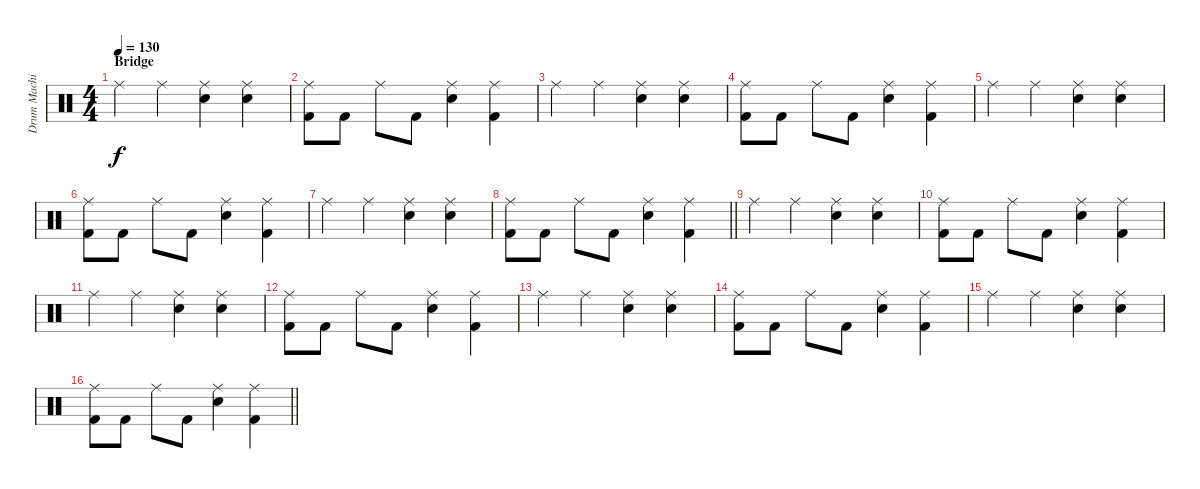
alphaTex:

\track ("Drum Machine" "Drum Machi") {instrument percussion}
\staff {score}
\articulation defaults
\ts (4 4)
\section ("" "Bridge")
\tempo 130
\clef neutral
\ks c "Ride (middle)".4{dy f} "Ride (middle)".4
("Electric Snare (hit)" "Ride (middle)").4 ("Electric Snare (hit)" "Ride (middle)").4 |
("Kick (hit) 2" "Ride (middle)").8 "Kick (hit) 2".8 "Ride (middle)".8 "Kick (hit) 2".8 ("Electric Snare (hit)" "Ride (middle)").4 ("Kick (hit) 2" "Ride (middle)").4 |
"Ride (middle)".4 "Ride (middle)".4 ("Electric Snare (hit)" "Ride (middle)").4 ("Electric Snare (hit)" "Ride (middle)").4 |
("Kick (hit) 2" "Ride (middle)").8 "Kick (hit) 2".8 "Ride (middle)".8 "Kick (hit) 2".8 ("Electric Snare (hit)" "Ride (middle)").4 ("Kick (hit) 2" "Ride (middle)").4 |
"Ride (middle)".4 "Ride (middle)".4 ("Electric Snare (hit)" "Ride (middle)").4 ("Electric Snare (hit)" "Ride (middle)").4 |
("Kick (hit) 2" "Ride (middle)").8 "Kick (hit) 2".8 "Ride (middle)".8 "Kick (hit) 2".8 ("Electric Snare (hit)" "Ride (middle)").4 ("Kick (hit) 2" "Ride (middle)").4 |
"Ride (middle)".4 "Ride (middle)".4 ("Electric Snare (hit)" "Ride (middle)").4 ("Electric Snare (hit)" "Ride (middle)").4 |
\barLineRight lightlight
("Kick (hit) 2" "Ride (middle)").8 "Kick (hit) 2".8 "Ride (middle)".8 "Kick (hit) 2".8 ("Electric Snare (hit)" "Ride (middle)").4 ("Kick (hit) 2" "Ride (middle)").4 |
"Ride (middle)".4 "Ride (middle)".4 ("Electric Snare (hit)" "Ride (middle)").4 ("Electric Snare (hit)" "Ride (middle)").4 |
("Kick (hit) 2" "Ride (middle)").8 "Kick (hit) 2".8 "Ride (middle)".8 "Kick (hit) 2".8 ("Electric Snare (hit)" "Ride (middle)").4 ("Kick (hit) 2" "Ride (middle)").4 |
"Ride (middle)".4 "Ride (middle)".4 ("Electric Snare (hit)" "Ride (middle)").4 ("Electric Snare (hit)" "Ride (middle)").4 |
("Kick (hit) 2" "Ride (middle)").8 "Kick (hit) 2".8 "Ride (middle)".8 "Kick (hit) 2".8 ("Electric Snare (hit)" "Ride (middle)").4 ("Kick (hit) 2" "Ride (middle)").4 |
"Ride (middle)".4 "Ride (middle)".4 ("Electric Snare (hit)" "Ride (middle)").4 ("Electric Snare (hit)" "Ride (middle)").4 |
("Kick (hit) 2" "Ride (middle)").8 "Kick (hit) 2".8 "Ride (middle)".8 "Kick (hit) 2".8 ("Electric Snare (hit)" "Ride (middle)").4 ("Kick (hit) 2" "Ride (middle)").4 |
"Ride (middle)".4 "Ride (middle)".4 ("Electric Snare (hit)" "Ride (middle)").4 ("Electric Snare (hit)" "Ride (middle)").4 |
\barLineRight lightlight
("Kick (hit) 2" "Ride (middle)").8 "Kick (hit) 2".8 "Ride (middle)".8 "Kick (hit) 2".8 ("Electric Snare (hit)" "Ride (middle)").4 ("Kick (hit) 2" "Ride (middle)").4
